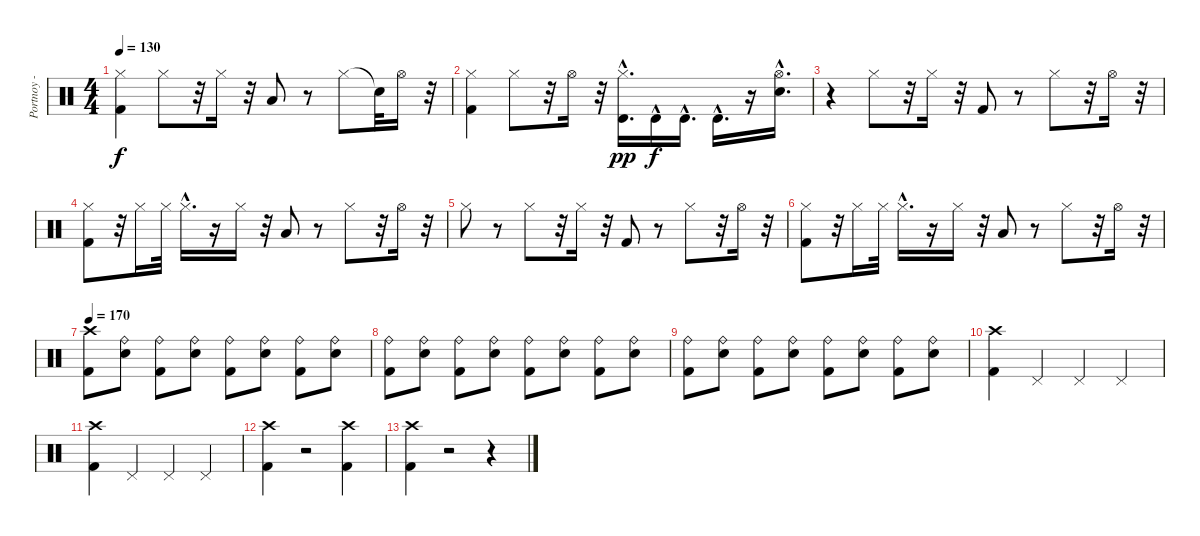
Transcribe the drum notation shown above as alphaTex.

\track ("Portnoy - Drums" "Portnoy - ") {instrument percussion}
\staff {score}
\articulation defaults
\ts (4 4)
\tempo 130
\clef neutral
\ks c
("Kick (hit) 2" "Hi-Hat (closed)").4{dy f} "Hi-Hat (closed)".8 r.32 "Hi-Hat (closed)".16 r.32 "Low Tom (hit)".8 r.8 "Hi-Hat (closed)".8 "Snare (hit)"{t}.32 "Hi-Hat (open)".16 r.32 |
("Hi-Hat (closed)" "Kick (hit) 2").4 "Hi-Hat (closed)".8 r.32 "Hi-Hat (open)".16 r.32 ("Hi-Hat (closed)" "Timbale high (hit)"{hac}).16{d dy pp} "Timbale high (hit)"{hac}.16{dy f} "Timbale high (hit)"{hac}.16{d} "Timbale high (hit)"{hac}.16{d} r.16 ("Electric Snare (hit)"{hac} "Hi-Hat (open)"{hac}).16{d} |
r.4 "Hi-Hat (closed)".8 r.32 "Hi-Hat (closed)".16 r.32 "Kick (hit) 2".8 r.8 "Hi-Hat (closed)".8 r.32 "Hi-Hat (open)".16 r.32 |
("Hi-Hat (closed)" "Kick (hit) 2").8 r.32 "Hi-Hat (closed)".16 "Hi-Hat (closed)".32 "Hi-Hat (closed)"{hac}.16{d} r.16 "Hi-Hat (closed)".16 r.32 "Low Tom (hit)".8 r.8 "Hi-Hat (closed)".8 r.32 "Hi-Hat (open)".16 r.32 |
"Hi-Hat (closed)".8 r.8 "Hi-Hat (closed)".8 r.32 "Hi-Hat (closed)".16 r.32 "Kick (hit) 2".8 r.8 "Hi-Hat (closed)".8 r.32 "Hi-Hat (open)".16 r.32 |
("Kick (hit) 2" "Hi-Hat (closed)").8 r.32 "Hi-Hat (closed)".16 "Hi-Hat (closed)".32 "Hi-Hat (closed)"{hac}.16{d} r.16 "Hi-Hat (closed)".16 r.32 "Low Tom (hit)".8 r.8 "Hi-Hat (closed)".8 r.32 "Hi-Hat (open)".16 r.32 |
\tempo 170
("Kick (hit) 2" "Crash high (hit)").8 ("Electric Snare (hit)" "Ride (bell)").8 ("Kick (hit) 2" "Ride (bell)").8 ("Electric Snare (hit)" "Ride (bell)").8 ("Kick (hit) 2" "Ride (bell)").8 ("Electric Snare (hit)" "Ride (bell)").8 ("Kick (hit) 2" "Ride (bell)").8 ("Electric Snare (hit)" "Ride (bell)").8 |
("Kick (hit) 2" "Ride (bell)").8 ("Electric Snare (hit)" "Ride (bell)").8 ("Kick (hit) 2" "Ride (bell)").8 ("Electric Snare (hit)" "Ride (bell)").8 ("Kick (hit) 2" "Ride (bell)").8 ("Electric Snare (hit)" "Ride (bell)").8 ("Kick (hit) 2" "Ride (bell)").8 ("Electric Snare (hit)" "Ride (bell)").8 |
("Kick (hit) 2" "Ride (bell)").8 ("Electric Snare (hit)" "Ride (bell)").8 ("Kick (hit) 2" "Ride (bell)").8 ("Electric Snare (hit)" "Ride (bell)").8 ("Kick (hit) 2" "Ride (bell)").8 ("Electric Snare (hit)" "Ride (bell)").8 ("Kick (hit) 2" "Ride (bell)").8 ("Electric Snare (hit)" "Ride (bell)").8 |
("Kick (hit) 2" "Crash high (hit)").4 "Pedal Hi-Hat (hit)".4 "Pedal Hi-Hat (hit)".4 "Pedal Hi-Hat (hit)".4 |
("Crash high (hit)" "Kick (hit) 2").4 "Pedal Hi-Hat (hit)".4 "Pedal Hi-Hat (hit)".4 "Pedal Hi-Hat (hit)".4 |
("Crash high (hit)" "Kick (hit) 2").4 r.2 ("Kick (hit) 2" "Crash high (hit)").4 |
("Crash high (hit)" "Kick (hit) 2").4 r.2 r.4
